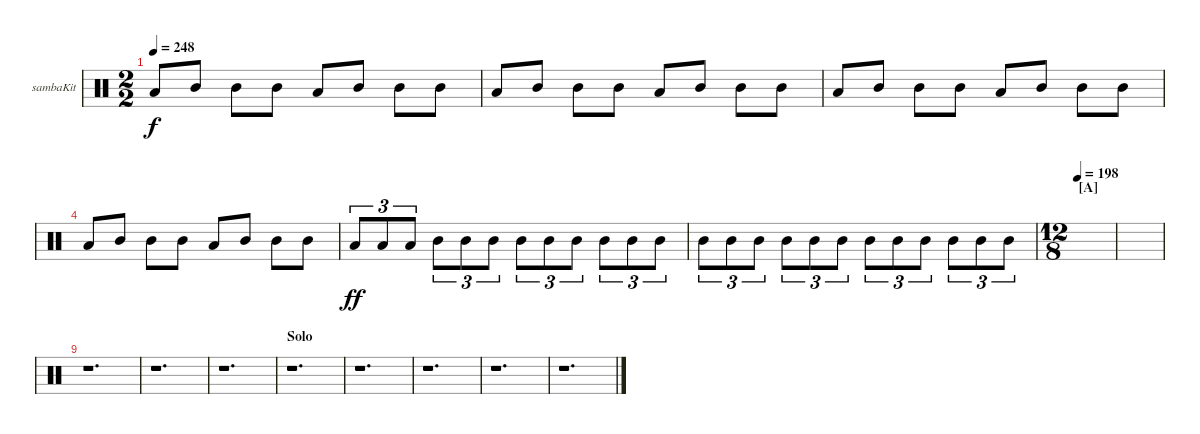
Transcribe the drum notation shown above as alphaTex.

\bracketExtendMode nobrackets
\firstSystemTrackNameOrientation horizontal
\otherSystemsTrackNameOrientation horizontal
\defaultBarNumberDisplay FirstOfSystem
\track ("Kit-Samba" "sambaKit") {instrument percussion}
\staff {score}
\articulation defaults
\ts (2 2)
\tempo 248
\clef neutral
\ks c "Low Tom (hit)".8{dy f} "Mid Tom (hit)".8 "Mid Tom (hit)".8 "Mid Tom (hit)".8 "Low Tom (hit)".8 "Mid Tom (hit)".8 "Mid Tom (hit)".8 "Mid Tom (hit)".8
|
"Low Tom (hit)".8 "Mid Tom (hit)".8 "Mid Tom (hit)".8 "Mid Tom (hit)".8 "Low Tom (hit)".8 "Mid Tom (hit)".8 "Mid Tom (hit)".8 "Mid Tom (hit)".8 |
"Low Tom (hit)".8 "Mid Tom (hit)".8 "Mid Tom (hit)".8 "Mid Tom (hit)".8 "Low Tom (hit)".8 "Mid Tom (hit)".8 "Mid Tom (hit)".8 "Mid Tom (hit)".8 |
"Low Tom (hit)".8 "Mid Tom (hit)".8 "Mid Tom (hit)".8 "Mid Tom (hit)".8 "Low Tom (hit)".8 "Mid Tom (hit)".8 "Mid Tom (hit)".8 "Mid Tom (hit)".8 |
"Low Tom (hit)".8{tu (3 2) dy ff} "Low Tom (hit)".8{tu (3 2)} "Low Tom (hit)".8{tu (3 2)} "Mid Tom (hit)".8{tu (3 2)} "Mid Tom (hit)".8{tu (3 2)} "Mid Tom (hit)".8{tu (3 2)} "Mid Tom (hit)".8{tu (3 2)} "Mid Tom (hit)".8{tu (3 2)} "Mid Tom (hit)".8{tu (3 2)} "Mid Tom (hit)".8{tu (3 2)} "Mid Tom (hit)".8{tu (3 2)} "Mid Tom (hit)".8{tu (3 2)} |
"Mid Tom (hit)".8{tu (3 2)} "Mid Tom (hit)".8{tu (3 2)} "Mid Tom (hit)".8{tu (3 2)} "Mid Tom (hit)".8{tu (3 2)} "Mid Tom (hit)".8{tu (3 2)} "Mid Tom (hit)".8{tu (3 2)} "Mid Tom (hit)".8{tu (3 2)} "Mid Tom (hit)".8{tu (3 2)} "Mid Tom (hit)".8{tu (3 2)} "Mid Tom (hit)".8{tu (3 2)} "Mid Tom (hit)".8{tu (3 2)} "Mid Tom (hit)".8{tu (3 2)} |
\ts (12 8)
\beaming (8 2 2 2 6)
\section ("A" "")
\tempo 198
|
|
r.1{d} |
r.1{d} |
r.1{d} |
\section ("" "Solo")
r.1{d} |
r.1{d} |
r.1{d} |
r.1{d} |
r.1{d}
